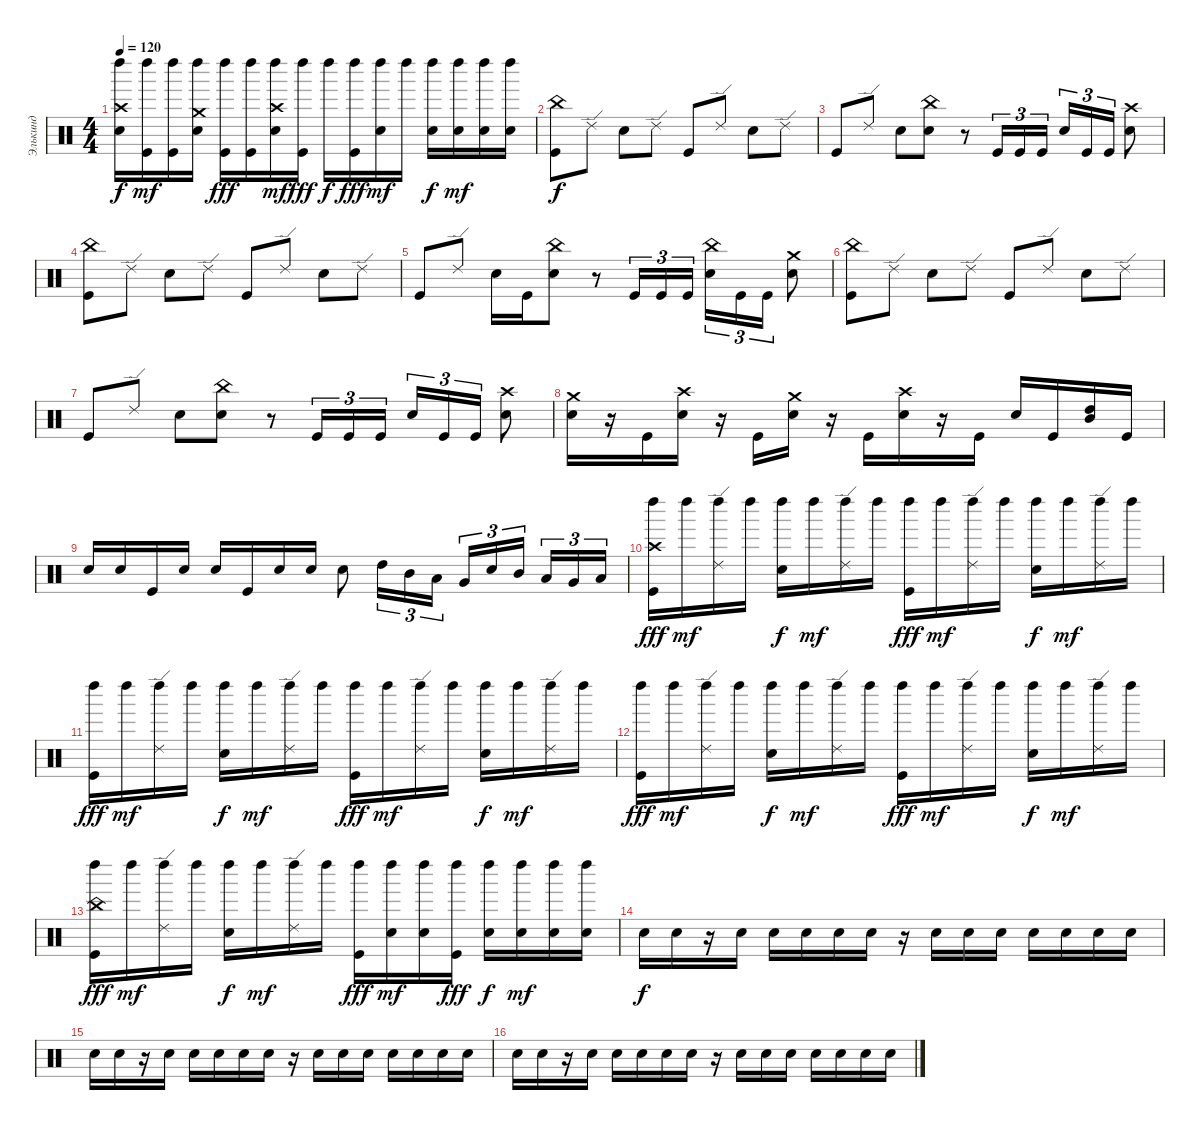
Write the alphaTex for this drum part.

\track ("Элькинд" "Элькинд") {instrument percussion}
\staff {score}
\articulation defaults
\ts (4 4)
\tempo 120
\clef neutral
\ks c
("Crash high (hit)" "Electric Snare (hit)" "Left Maraca (hit)").16{dy f} ("Kick (hit)" "Left Maraca (hit)").16{dy mf} ("Kick (hit)" "Left Maraca (hit)").16 ("Left Maraca (hit)" "Crash medium (hit)" "Electric Snare (hit)").16 ("Kick (hit)" "Left Maraca (hit)").16{dy fff} ("Left Maraca (hit)" "Kick (hit)").16 ("Left Maraca (hit)" "Crash high (hit)" "Electric Snare (hit)").16{dy mf} ("Left Maraca (hit)" "Kick (hit)").16{dy fff} "Left Maraca (hit)".16{dy f} ("Left Maraca (hit)" "Kick (hit)").16{dy fff} ("Electric Snare (hit)" "Left Maraca (hit)").16{dy mf} "Left Maraca (hit)".16 ("Left Maraca (hit)" "Electric Snare (hit)").16{dy f} ("Electric Snare (hit)" "Left Maraca (hit)").16{dy mf} ("Electric Snare (hit)" "Left Maraca (hit)").16 ("Electric Snare (hit)" "Left Maraca (hit)").16 |
("China (hit)" "Kick (hit)").8{dy f} "Ride (edge) 2".8 "Electric Snare (hit)".8 "Ride (edge) 2".8 "Kick (hit)".8 "Ride (edge) 2".8 "Electric Snare (hit)".8 "Ride (edge) 2".8 |
"Kick (hit)".8 "Ride (edge) 2".8 "Electric Snare (hit)".8 ("China (hit)" "Electric Snare (hit)").8 r.8 "Kick (hit)".16{tu (3 2)} "Kick (hit)".16{tu (3 2)} "Kick (hit)".16{tu (3 2)} "Electric Snare (hit)".16{tu (3 2)} "Kick (hit)".16{tu (3 2)} "Kick (hit)".16{tu (3 2)} ("Crash high (hit)" "Electric Snare (hit)").8 |
("China (hit)" "Kick (hit)").8 "Ride (edge) 2".8 "Electric Snare (hit)".8 "Ride (edge) 2".8 "Kick (hit)".8 "Ride (edge) 2".8 "Electric Snare (hit)".8 "Ride (edge) 2".8 |
"Kick (hit)".8 "Ride (edge) 2".8 "Electric Snare (hit)".16 "Kick (hit)".16 ("China (hit)" "Electric Snare (hit)").8 r.8 "Kick (hit)".16{tu (3 2)} "Kick (hit)".16{tu (3 2)} "Kick (hit)".16{tu (3 2)} ("China (hit)" "Electric Snare (hit)").16{tu (3 2)} "Kick (hit)".16{tu (3 2)} "Kick (hit)".16{tu (3 2)} ("Crash medium (hit)" "Electric Snare (hit)").8 |
("China (hit)" "Kick (hit)").8 "Ride (edge) 2".8 "Electric Snare (hit)".8 "Ride (edge) 2".8 "Kick (hit)".8 "Ride (edge) 2".8 "Electric Snare (hit)".8 "Ride (edge) 2".8 |
"Kick (hit)".8 "Ride (edge) 2".8 "Electric Snare (hit)".8 ("China (hit)" "Electric Snare (hit)").8 r.8 "Kick (hit)".16{tu (3 2)} "Kick (hit)".16{tu (3 2)} "Kick (hit)".16{tu (3 2)} "Electric Snare (hit)".16{tu (3 2)} "Kick (hit)".16{tu (3 2)} "Kick (hit)".16{tu (3 2)} ("Crash high (hit)" "Electric Snare (hit)").8 |
("Crash medium (hit)" "Electric Snare (hit)").16 r.16 "Kick (hit)".16 ("Crash high (hit)" "Electric Snare (hit)").16 r.16 "Kick (hit)".16 ("Crash medium (hit)" "Electric Snare (hit)").16 r.16 "Kick (hit)".16 ("Crash high (hit)" "Electric Snare (hit)").16 r.16 "Kick (hit)".16 "Electric Snare (hit)".16 "Kick (hit)".16 ("High Tom (hit)" "Mid Tom (hit)").16 "Kick (hit)".16 |
"Electric Snare (hit)".16 "Electric Snare (hit)".16 "Kick (hit)".16 "Electric Snare (hit)".16 "Electric Snare (hit)".16 "Kick (hit)".16 "Electric Snare (hit)".16 "Electric Snare (hit)".16 "Electric Snare (hit)".8 "High Tom (hit)".16{tu (3 2)} "Mid Tom (hit)".16{tu (3 2)} "Low Tom (hit)".16{tu (3 2)} "Very Low Tom (hit)".16{tu (3 2)} "Electric Snare (hit)".16{tu (3 2)} "Mid Tom (hit)".16{tu (3 2) beam splitsecondary} "Low Tom (hit)".16{tu (3 2)} "Very Low Tom (hit)".16{tu (3 2)} "Low Floor Tom (hit)".16{tu (3 2)} |
("Left Maraca (hit)" "Crash high (hit)" "Kick (hit)").16{dy fff} "Left Maraca (hit)".16{dy mf} ("Left Maraca (hit)" "Ride (edge) 2").16 "Left Maraca (hit)".16 ("Left Maraca (hit)" "Electric Snare (hit)").16{dy f} "Left Maraca (hit)".16{dy mf} ("Left Maraca (hit)" "Ride (edge) 2").16 "Left Maraca (hit)".16 ("Left Maraca (hit)" "Kick (hit)").16{dy fff} "Left Maraca (hit)".16{dy mf} ("Left Maraca (hit)" "Ride (edge) 2").16 "Left Maraca (hit)".16 ("Left Maraca (hit)" "Electric Snare (hit)").16{dy f} "Left Maraca (hit)".16{dy mf} ("Left Maraca (hit)" "Ride (edge) 2").16 "Left Maraca (hit)".16 |
("Left Maraca (hit)" "Kick (hit)").16{dy fff} "Left Maraca (hit)".16{dy mf} ("Left Maraca (hit)" "Ride (edge) 2").16 "Left Maraca (hit)".16 ("Left Maraca (hit)" "Electric Snare (hit)").16{dy f} "Left Maraca (hit)".16{dy mf} ("Left Maraca (hit)" "Ride (edge) 2").16 "Left Maraca (hit)".16 ("Left Maraca (hit)" "Kick (hit)").16{dy fff} "Left Maraca (hit)".16{dy mf} ("Left Maraca (hit)" "Ride (edge) 2").16 "Left Maraca (hit)".16 ("Left Maraca (hit)" "Electric Snare (hit)").16{dy f} "Left Maraca (hit)".16{dy mf} ("Left Maraca (hit)" "Ride (edge) 2").16 "Left Maraca (hit)".16 |
("Left Maraca (hit)" "Kick (hit)").16{dy fff} "Left Maraca (hit)".16{dy mf} ("Left Maraca (hit)" "Ride (edge) 2").16 "Left Maraca (hit)".16 ("Left Maraca (hit)" "Electric Snare (hit)").16{dy f} "Left Maraca (hit)".16{dy mf} ("Left Maraca (hit)" "Ride (edge) 2").16 "Left Maraca (hit)".16 ("Left Maraca (hit)" "Kick (hit)").16{dy fff} "Left Maraca (hit)".16{dy mf} ("Left Maraca (hit)" "Ride (edge) 2").16 "Left Maraca (hit)".16 ("Left Maraca (hit)" "Electric Snare (hit)").16{dy f} "Left Maraca (hit)".16{dy mf} ("Left Maraca (hit)" "Ride (edge) 2").16 "Left Maraca (hit)".16 |
("Kick (hit)" "China (hit)" "Left Maraca (hit)").16{dy fff} "Left Maraca (hit)".16{dy mf} ("Left Maraca (hit)" "Ride (edge) 2").16 "Left Maraca (hit)".16 ("Electric Snare (hit)" "Left Maraca (hit)").16{dy f} "Left Maraca (hit)".16{dy mf} ("Ride (edge) 2" "Left Maraca (hit)").16 "Left Maraca (hit)".16 ("Left Maraca (hit)" "Kick (hit)").16{dy fff} ("Electric Snare (hit)" "Left Maraca (hit)").16{dy mf} ("Left Maraca (hit)" "Electric Snare (hit)").16 ("Left Maraca (hit)" "Kick (hit)").16{dy fff} ("Electric Snare (hit)" "Left Maraca (hit)").16{dy f} ("Left Maraca (hit)" "Electric Snare (hit)").16{dy mf} ("Left Maraca (hit)" "Electric Snare (hit)").16 ("Electric Snare (hit)" "Left Maraca (hit)").16 |
"Electric Snare (hit)".16{dy f} "Electric Snare (hit)".16 r.16 "Electric Snare (hit)".16 "Electric Snare (hit)".16 "Electric Snare (hit)".16 "Electric Snare (hit)".16 "Electric Snare (hit)".16 r.16 "Electric Snare (hit)".16 "Electric Snare (hit)".16 "Electric Snare (hit)".16 "Electric Snare (hit)".16 "Electric Snare (hit)".16 "Electric Snare (hit)".16 "Electric Snare (hit)".16 |
"Electric Snare (hit)".16 "Electric Snare (hit)".16 r.16 "Electric Snare (hit)".16 "Electric Snare (hit)".16 "Electric Snare (hit)".16 "Electric Snare (hit)".16 "Electric Snare (hit)".16 r.16 "Electric Snare (hit)".16 "Electric Snare (hit)".16 "Electric Snare (hit)".16 "Electric Snare (hit)".16 "Electric Snare (hit)".16 "Electric Snare (hit)".16 "Electric Snare (hit)".16 |
"Electric Snare (hit)".16 "Electric Snare (hit)".16 r.16 "Electric Snare (hit)".16 "Electric Snare (hit)".16 "Electric Snare (hit)".16 "Electric Snare (hit)".16 "Electric Snare (hit)".16 r.16 "Electric Snare (hit)".16 "Electric Snare (hit)".16 "Electric Snare (hit)".16 "Electric Snare (hit)".16 "Electric Snare (hit)".16 "Electric Snare (hit)".16 "Electric Snare (hit)".16
